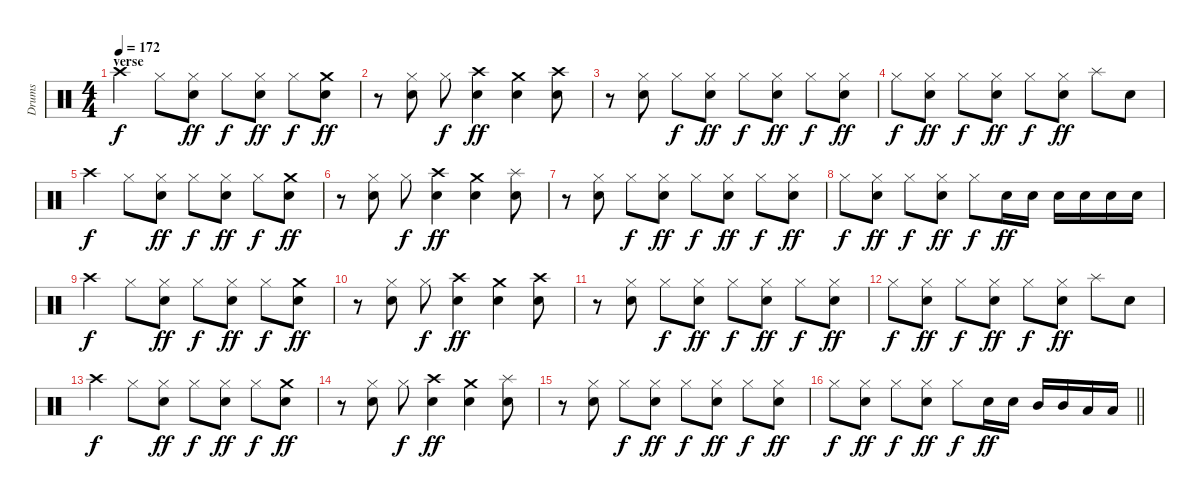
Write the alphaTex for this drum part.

\track ("Drums" "Drums") {instrument percussion}
\staff {score}
\articulation defaults
\ts (4 4)
\section ("" "verse")
\tempo 172
\clef neutral
\ks c "Crash high (hit)".4{dy f} "Hi-Hat (closed)".8
("Hi-Hat (closed)" "Snare (hit) 2").8{dy ff} "Hi-Hat (closed)".8{dy f} ("Hi-Hat (closed)" "Snare (hit) 2").8{dy ff} "Hi-Hat (closed)".8{dy f} ("Crash medium (hit)" "Snare (hit) 2").8{dy ff} |
r.8 ("Hi-Hat (closed)" "Snare (hit) 2").8 "Hi-Hat (closed)".8{dy f} ("Crash high (hit)" "Snare (hit) 2").4{dy ff} ("Crash medium (hit)" "Snare (hit) 2").4 ("Crash high (hit)" "Snare (hit) 2").8 |
r.8 ("Hi-Hat (closed)" "Snare (hit) 2").8 "Hi-Hat (closed)".8{dy f} ("Hi-Hat (closed)" "Snare (hit) 2").8{dy ff} "Hi-Hat (closed)".8{dy f} ("Hi-Hat (closed)" "Snare (hit) 2").8{dy ff} "Hi-Hat (closed)".8{dy f} ("Hi-Hat (closed)" "Snare (hit) 2").8{dy ff} |
"Hi-Hat (closed)".8{dy f} ("Hi-Hat (closed)" "Snare (hit) 2").8{dy ff} "Hi-Hat (closed)".8{dy f} ("Hi-Hat (closed)" "Snare (hit) 2").8{dy ff} "Hi-Hat (closed)".8{dy f} ("Hi-Hat (closed)" "Snare (hit) 2").8{dy ff} "Splash (hit)".8 "Snare (hit) 2".8 |
"Crash high (hit)".4{dy f} "Hi-Hat (closed)".8 ("Hi-Hat (closed)" "Snare (hit) 2").8{dy ff} "Hi-Hat (closed)".8{dy f} ("Hi-Hat (closed)" "Snare (hit) 2").8{dy ff} "Hi-Hat (closed)".8{dy f} ("Crash medium (hit)" "Snare (hit) 2").8{dy ff} |
r.8 ("Hi-Hat (closed)" "Snare (hit) 2").8 "Hi-Hat (closed)".8{dy f} ("Crash high (hit)" "Snare (hit) 2").4{dy ff} ("Crash medium (hit)" "Snare (hit) 2").4 ("Splash (hit)" "Snare (hit) 2").8 |
r.8 ("Hi-Hat (closed)" "Snare (hit) 2").8 "Hi-Hat (closed)".8{dy f} ("Hi-Hat (closed)" "Snare (hit) 2").8{dy ff} "Hi-Hat (closed)".8{dy f} ("Hi-Hat (closed)" "Snare (hit) 2").8{dy ff} "Hi-Hat (closed)".8{dy f} ("Hi-Hat (closed)" "Snare (hit) 2").8{dy ff} |
"Hi-Hat (closed)".8{dy f} ("Hi-Hat (closed)" "Snare (hit) 2").8{dy ff} "Hi-Hat (closed)".8{dy f} ("Hi-Hat (closed)" "Snare (hit) 2").8{dy ff} "Hi-Hat (closed)".8{dy f} "Snare (hit) 2".16{dy ff} "Snare (hit) 2".16 "Snare (hit) 2".16 "Snare (hit) 2".16 "Snare (hit) 2".16 "Snare (hit) 2".16 |
"Crash high (hit)".4{dy f} "Hi-Hat (closed)".8 ("Hi-Hat (closed)" "Snare (hit) 2").8{dy ff} "Hi-Hat (closed)".8{dy f} ("Hi-Hat (closed)" "Snare (hit) 2").8{dy ff} "Hi-Hat (closed)".8{dy f} ("Crash medium (hit)" "Snare (hit) 2").8{dy ff} |
r.8 ("Hi-Hat (closed)" "Snare (hit) 2").8 "Hi-Hat (closed)".8{dy f} ("Crash high (hit)" "Snare (hit) 2").4{dy ff} ("Crash medium (hit)" "Snare (hit) 2").4 ("Crash high (hit)" "Snare (hit) 2").8 |
r.8 ("Hi-Hat (closed)" "Snare (hit) 2").8 "Hi-Hat (closed)".8{dy f} ("Hi-Hat (closed)" "Snare (hit) 2").8{dy ff} "Hi-Hat (closed)".8{dy f} ("Hi-Hat (closed)" "Snare (hit) 2").8{dy ff} "Hi-Hat (closed)".8{dy f} ("Hi-Hat (closed)" "Snare (hit) 2").8{dy ff} |
"Hi-Hat (closed)".8{dy f} ("Hi-Hat (closed)" "Snare (hit) 2").8{dy ff} "Hi-Hat (closed)".8{dy f} ("Hi-Hat (closed)" "Snare (hit) 2").8{dy ff} "Hi-Hat (closed)".8{dy f} ("Hi-Hat (closed)" "Snare (hit) 2").8{dy ff} "Splash (hit)".8 "Snare (hit) 2".8 |
"Crash high (hit)".4{dy f} "Hi-Hat (closed)".8 ("Hi-Hat (closed)" "Snare (hit) 2").8{dy ff} "Hi-Hat (closed)".8{dy f} ("Hi-Hat (closed)" "Snare (hit) 2").8{dy ff} "Hi-Hat (closed)".8{dy f} ("Crash medium (hit)" "Snare (hit) 2").8{dy ff} |
r.8 ("Hi-Hat (closed)" "Snare (hit) 2").8 "Hi-Hat (closed)".8{dy f} ("Crash high (hit)" "Snare (hit) 2").4{dy ff} ("Crash medium (hit)" "Snare (hit) 2").4 ("Splash (hit)" "Snare (hit) 2").8 |
r.8 ("Hi-Hat (closed)" "Snare (hit) 2").8 "Hi-Hat (closed)".8{dy f} ("Hi-Hat (closed)" "Snare (hit) 2").8{dy ff} "Hi-Hat (closed)".8{dy f} ("Hi-Hat (closed)" "Snare (hit) 2").8{dy ff} "Hi-Hat (closed)".8{dy f} ("Hi-Hat (closed)" "Snare (hit) 2").8{dy ff} |
\barLineRight lightlight "Hi-Hat (closed)".8{dy f}
("Hi-Hat (closed)" "Snare (hit) 2").8{dy ff} "Hi-Hat (closed)".8{dy f} ("Hi-Hat (closed)" "Snare (hit) 2").8{dy ff} "Hi-Hat (closed)".8{dy f} "Snare (hit) 2".16{dy ff} "Snare (hit) 2".16 "Mid Tom (hit)".16 "Mid Tom (hit)".16 "Low Tom (hit)".16 "Low Tom (hit)".16
